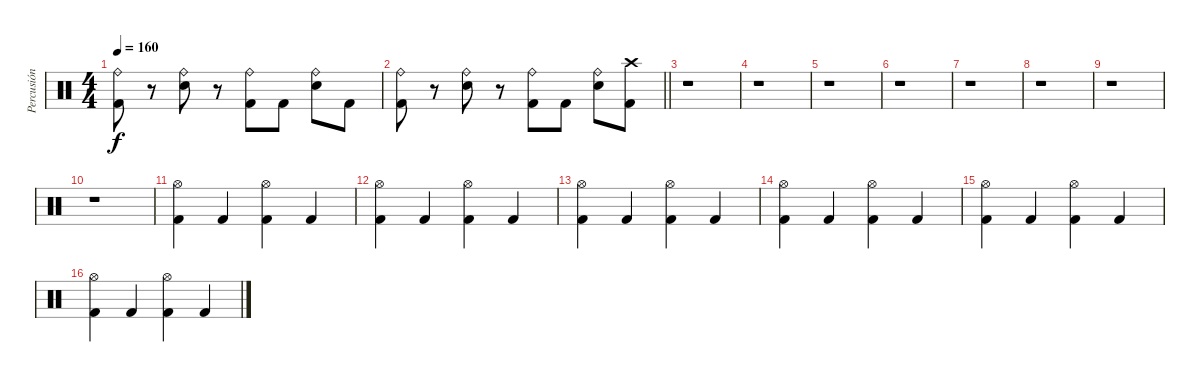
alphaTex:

\track ("Percusión (Nevi)" "Percusión ") {instrument percussion}
\staff {score}
\articulation defaults
\ts (4 4)
\tempo 160
\clef neutral
\ks c
("Kick (hit) 2" "Ride (bell)").8{dy f} r.8 ("Ride (bell)" "Snare (hit) 2").8 r.8 ("Kick (hit) 2" "Ride (bell)").8 "Kick (hit) 2".8 ("Ride (bell)" "Snare (hit) 2").8 "Kick (hit) 2".8 |
\barLineRight lightlight
("Kick (hit) 2" "Ride (bell)").8 r.8 ("Ride (bell)" "Snare (hit) 2").8 r.8 ("Kick (hit) 2" "Ride (bell)").8 "Kick (hit) 2".8 ("Ride (bell)" "Snare (hit) 2").8 ("Kick (hit) 2" "Crash high (hit)").8 |
r.1 |
r.1 |
r.1 |
r.1 |
r.1 |
r.1 |
r.1 |
r.1 |
("Kick (hit) 2" "Hi-Hat (open)").4 "Kick (hit) 2".4 ("Kick (hit) 2" "Hi-Hat (open)").4 "Kick (hit) 2".4 |
("Kick (hit) 2" "Hi-Hat (open)").4 "Kick (hit) 2".4 ("Kick (hit) 2" "Hi-Hat (open)").4 "Kick (hit) 2".4 |
("Kick (hit) 2" "Hi-Hat (open)").4 "Kick (hit) 2".4 ("Kick (hit) 2" "Hi-Hat (open)").4 "Kick (hit) 2".4 |
("Kick (hit) 2" "Hi-Hat (open)").4 "Kick (hit) 2".4 ("Kick (hit) 2" "Hi-Hat (open)").4 "Kick (hit) 2".4 |
("Kick (hit) 2" "Hi-Hat (open)").4 "Kick (hit) 2".4 ("Kick (hit) 2" "Hi-Hat (open)").4 "Kick (hit) 2".4 |
("Kick (hit) 2" "Hi-Hat (open)").4 "Kick (hit) 2".4 ("Kick (hit) 2" "Hi-Hat (open)").4 "Kick (hit) 2".4
